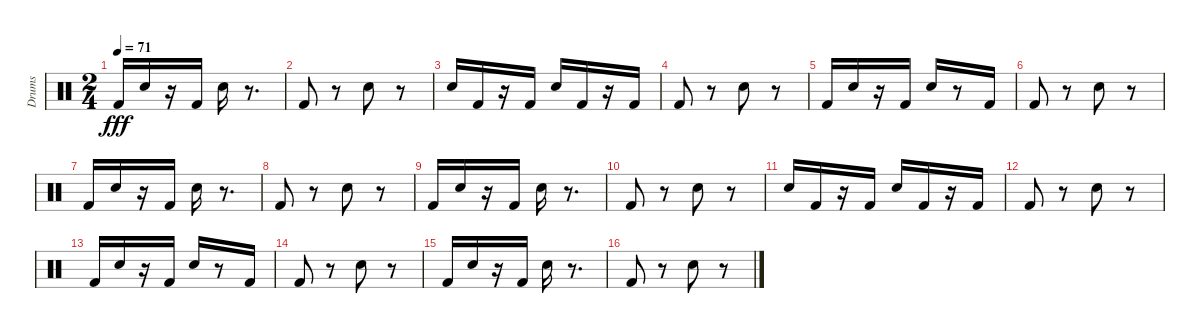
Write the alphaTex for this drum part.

\track ("Drums" "Drums") {instrument percussion}
\staff {score}
\articulation defaults
\ts (2 4)
\tempo 71
\clef neutral
\ks c "Kick (hit) 2".16{dy fff} "Electric Snare (hit)".16
r.16 "Kick (hit) 2".16 "Snare (hit) 2".16 r.8{d} |
"Kick (hit) 2".8 r.8 "Snare (hit) 2".8 r.8 |
"Electric Snare (hit)".16 "Kick (hit) 2".16 r.16 "Kick (hit) 2".16 "Snare (hit) 2".16 "Kick (hit) 2".16 r.16 "Kick (hit) 2".16 |
"Kick (hit) 2".8 r.8 "Snare (hit) 2".8 r.8 |
"Kick (hit) 2".16 "Snare (hit) 2".16 r.16 "Kick (hit) 2".16 "Snare (hit) 2".16 r.8 "Kick (hit) 2".16 |
"Kick (hit) 2".8 r.8 "Snare (hit) 2".8 r.8 |
"Kick (hit) 2".16 "Snare (hit) 2".16 r.16 "Kick (hit) 2".16 "Snare (hit) 2".16 r.8{d} |
"Kick (hit) 2".8 r.8 "Snare (hit) 2".8 r.8 |
"Kick (hit) 2".16 "Electric Snare (hit)".16 r.16 "Kick (hit) 2".16 "Snare (hit) 2".16 r.8{d} |
"Kick (hit) 2".8 r.8 "Snare (hit) 2".8 r.8 |
"Electric Snare (hit)".16 "Kick (hit) 2".16 r.16 "Kick (hit) 2".16 "Snare (hit) 2".16 "Kick (hit) 2".16 r.16 "Kick (hit) 2".16 |
"Kick (hit) 2".8{volume 12} r.8 "Snare (hit) 2".8{volume 12} r.8 |
"Kick (hit) 2".16{volume 12} "Snare (hit) 2".16{volume 12} r.16 "Kick (hit) 2".16{volume 11} "Snare (hit) 2".16{volume 11} r.8 "Kick (hit) 2".16{volume 10} |
"Kick (hit) 2".8{volume 10} r.8 "Snare (hit) 2".8{volume 10} r.8 |
"Kick (hit) 2".16{volume 9} "Snare (hit) 2".16{volume 8} r.16 "Kick (hit) 2".16{volume 8} "Snare (hit) 2".16{volume 7} r.8{d} |
"Kick (hit) 2".8{volume 6} r.8 "Snare (hit) 2".8{volume 4} r.8
